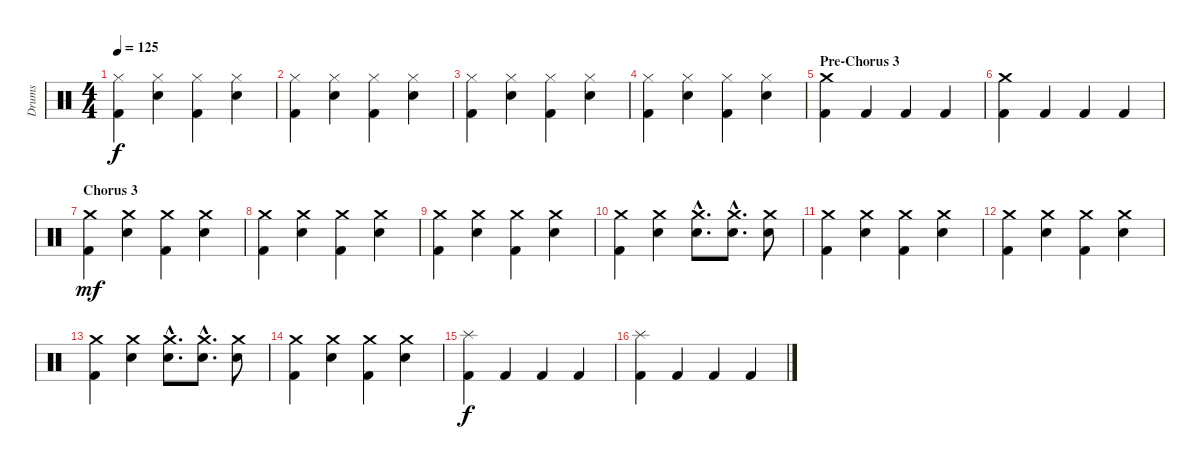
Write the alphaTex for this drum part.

\track ("Drums" "Drums") {instrument percussion}
\staff {score}
\articulation defaults
\ts (4 4)
\tempo 125
\clef neutral
\ks c
("Hi-Hat (closed)" "Kick (hit) 2").4{dy f} ("Hi-Hat (closed)" "Electric Snare (hit)").4 ("Hi-Hat (closed)" "Kick (hit) 2").4 ("Hi-Hat (closed)" "Electric Snare (hit)").4 |
("Hi-Hat (closed)" "Kick (hit) 2").4 ("Hi-Hat (closed)" "Electric Snare (hit)").4 ("Hi-Hat (closed)" "Kick (hit) 2").4 ("Hi-Hat (closed)" "Electric Snare (hit)").4 |
("Hi-Hat (closed)" "Kick (hit) 2").4 ("Hi-Hat (closed)" "Electric Snare (hit)").4 ("Hi-Hat (closed)" "Kick (hit) 2").4 ("Hi-Hat (closed)" "Electric Snare (hit)").4 |
("Hi-Hat (closed)" "Kick (hit) 2").4 ("Hi-Hat (closed)" "Electric Snare (hit)").4 ("Hi-Hat (closed)" "Kick (hit) 2").4 ("Hi-Hat (closed)" "Electric Snare (hit)").4 |
\section ("" "Pre-Chorus 3")
("Crash medium (hit)" "Kick (hit) 2").4 "Kick (hit) 2".4 "Kick (hit) 2".4 "Kick (hit) 2".4 |
("Crash medium (hit)" "Kick (hit) 2").4 "Kick (hit) 2".4 "Kick (hit) 2".4 "Kick (hit) 2".4 |
\section ("" "Chorus 3")
("Crash medium (hit)" "Kick (hit) 2").4{dy mf} ("Crash medium (hit)" "Electric Snare (hit)").4 ("Crash medium (hit)" "Kick (hit) 2").4 ("Crash medium (hit)" "Electric Snare (hit)").4 |
("Crash medium (hit)" "Kick (hit) 2").4 ("Crash medium (hit)" "Electric Snare (hit)").4 ("Crash medium (hit)" "Kick (hit) 2").4 ("Crash medium (hit)" "Electric Snare (hit)").4 |
("Crash medium (hit)" "Kick (hit) 2").4 ("Crash medium (hit)" "Electric Snare (hit)").4 ("Crash medium (hit)" "Kick (hit) 2").4 ("Crash medium (hit)" "Electric Snare (hit)").4 |
("Crash medium (hit)" "Kick (hit) 2").4 ("Crash medium (hit)" "Electric Snare (hit)").4 ("Crash medium (hit)"{hac} "Electric Snare (hit)"{hac}).8{d} ("Crash medium (hit)"{hac} "Electric Snare (hit)"{hac}).8{d} ("Crash medium (hit)" "Electric Snare (hit)").8 |
("Crash medium (hit)" "Kick (hit) 2").4 ("Crash medium (hit)" "Electric Snare (hit)").4 ("Crash medium (hit)" "Kick (hit) 2").4 ("Crash medium (hit)" "Electric Snare (hit)").4 |
("Crash medium (hit)" "Kick (hit) 2").4 ("Crash medium (hit)" "Electric Snare (hit)").4 ("Crash medium (hit)" "Kick (hit) 2").4 ("Crash medium (hit)" "Electric Snare (hit)").4 |
("Crash medium (hit)" "Kick (hit) 2").4 ("Crash medium (hit)" "Electric Snare (hit)").4 ("Crash medium (hit)"{hac} "Electric Snare (hit)"{hac}).8{d} ("Crash medium (hit)"{hac} "Electric Snare (hit)"{hac}).8{d} ("Crash medium (hit)" "Electric Snare (hit)").8 |
("Crash medium (hit)" "Kick (hit) 2").4 ("Crash medium (hit)" "Electric Snare (hit)").4 ("Crash medium (hit)" "Kick (hit) 2").4 ("Crash medium (hit)" "Electric Snare (hit)").4 |
("Splash (hit)" "Kick (hit) 2").4{dy f} "Kick (hit) 2".4 "Kick (hit) 2".4 "Kick (hit) 2".4 |
("Splash (hit)" "Kick (hit) 2").4 "Kick (hit) 2".4 "Kick (hit) 2".4 "Kick (hit) 2".4
